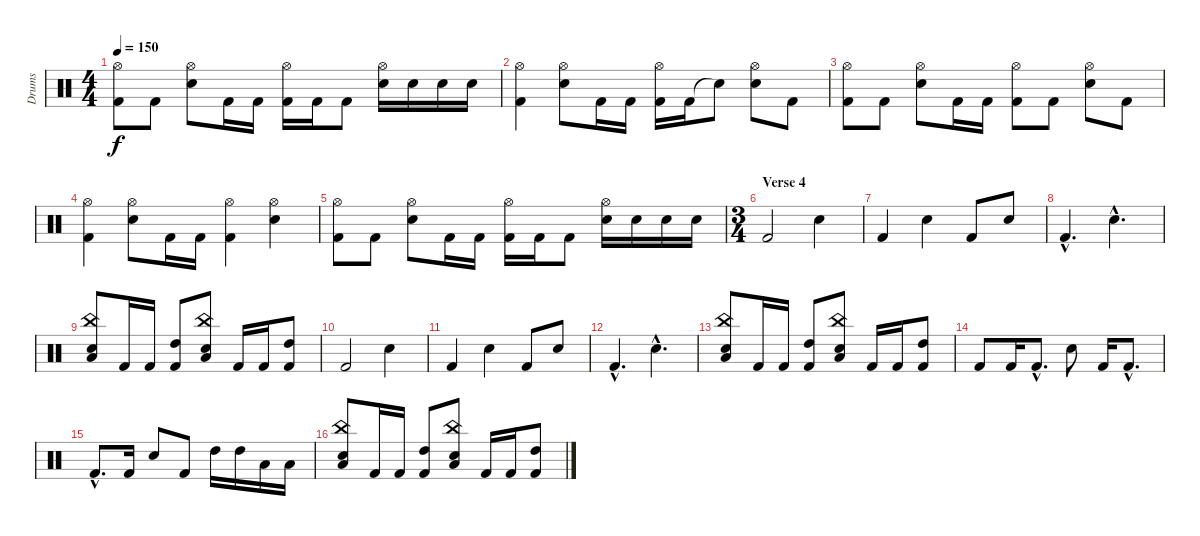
\track ("Drums" "Drums") {instrument percussion}
\staff {score}
\articulation defaults
\ts (4 4)
\tempo 150
\clef neutral
\ks c
("Hi-Hat (open)" "Kick (hit) 2").8{dy f} "Kick (hit) 2".8 ("Hi-Hat (open)" "Electric Snare (hit)").8 "Kick (hit) 2".16 "Kick (hit) 2".16 ("Hi-Hat (open)" "Kick (hit) 2").16 "Kick (hit) 2".16 "Kick (hit) 2".8 ("Hi-Hat (open)" "Electric Snare (hit)").16 "Electric Snare (hit)".16 "Electric Snare (hit)".16 "Electric Snare (hit)".16 |
("Hi-Hat (open)" "Kick (hit) 2").4 ("Hi-Hat (open)" "Electric Snare (hit)").8 "Kick (hit) 2".16 "Kick (hit) 2".16 ("Hi-Hat (open)" "Kick (hit) 2").16 "Kick (hit) 2".16 "Snare (hit)"{t}.8 ("Hi-Hat (open)" "Electric Snare (hit)").8 "Kick (hit) 2".8 |
("Hi-Hat (open)" "Kick (hit) 2").8 "Kick (hit) 2".8 ("Hi-Hat (open)" "Electric Snare (hit)").8 "Kick (hit) 2".16 "Kick (hit) 2".16 ("Hi-Hat (open)" "Kick (hit) 2").8 "Kick (hit) 2".8 ("Hi-Hat (open)" "Electric Snare (hit)").8 "Kick (hit) 2".8 |
("Hi-Hat (open)" "Kick (hit) 2").4 ("Hi-Hat (open)" "Electric Snare (hit)").8 "Kick (hit) 2".16 "Kick (hit) 2".16 ("Hi-Hat (open)" "Kick (hit) 2").4 ("Hi-Hat (open)" "Electric Snare (hit)").4 |
("Hi-Hat (open)" "Kick (hit) 2").8 "Kick (hit) 2".8 ("Hi-Hat (open)" "Electric Snare (hit)").8 "Kick (hit) 2".16 "Kick (hit) 2".16 ("Hi-Hat (open)" "Kick (hit) 2").16 "Kick (hit) 2".16 "Kick (hit) 2".8 ("Hi-Hat (open)" "Electric Snare (hit)").16 "Electric Snare (hit)".16 "Electric Snare (hit)".16 "Electric Snare (hit)".16 |
\ts (3 4)
\section ("" "Verse 4")
"Kick (hit) 2".2 "Electric Snare (hit)".4 |
"Kick (hit) 2".4 "Electric Snare (hit)".4 "Kick (hit) 2".8 "Electric Snare (hit)".8 |
"Kick (hit) 2"{hac}.4{d} "Electric Snare (hit)"{hac}.4{d} |
("China (hit)" "Low Tom (hit)" "Electric Snare (hit)").8 "Kick (hit) 2".16 "Kick (hit) 2".16 ("High Tom (hit)" "Kick (hit) 2").8 ("China (hit)" "Low Tom (hit)" "Electric Snare (hit)").8 "Kick (hit) 2".16 "Kick (hit) 2".16 ("High Tom (hit)" "Kick (hit) 2").8 |
"Kick (hit) 2".2 "Electric Snare (hit)".4 |
"Kick (hit) 2".4 "Electric Snare (hit)".4 "Kick (hit) 2".8 "Electric Snare (hit)".8 |
"Kick (hit) 2"{hac}.4{d} "Electric Snare (hit)"{hac}.4{d} |
("China (hit)" "Low Tom (hit)" "Electric Snare (hit)").8 "Kick (hit) 2".16 "Kick (hit) 2".16 ("High Tom (hit)" "Kick (hit) 2").8 ("China (hit)" "Low Tom (hit)" "Electric Snare (hit)").8 "Kick (hit) 2".16 "Kick (hit) 2".16 ("High Tom (hit)" "Kick (hit) 2").8 |
"Kick (hit) 2".8 "Kick (hit) 2".16 "Kick (hit) 2"{hac}.8{d} "Electric Snare (hit)".8 "Kick (hit) 2".16 "Kick (hit) 2"{hac}.8{d} |
"Kick (hit) 2"{hac}.8{d} "Kick (hit) 2".16 "Electric Snare (hit)".8 "Kick (hit) 2".8 "High Tom (hit)".16 "High Tom (hit)".16 "Low Tom (hit)".16 "Low Tom (hit)".16 |
("China (hit)" "Low Tom (hit)" "Electric Snare (hit)").8 "Kick (hit) 2".16 "Kick (hit) 2".16 ("High Tom (hit)" "Kick (hit) 2").8 ("China (hit)" "Low Tom (hit)" "Electric Snare (hit)").8 "Kick (hit) 2".16 "Kick (hit) 2".16 ("High Tom (hit)" "Kick (hit) 2").8
